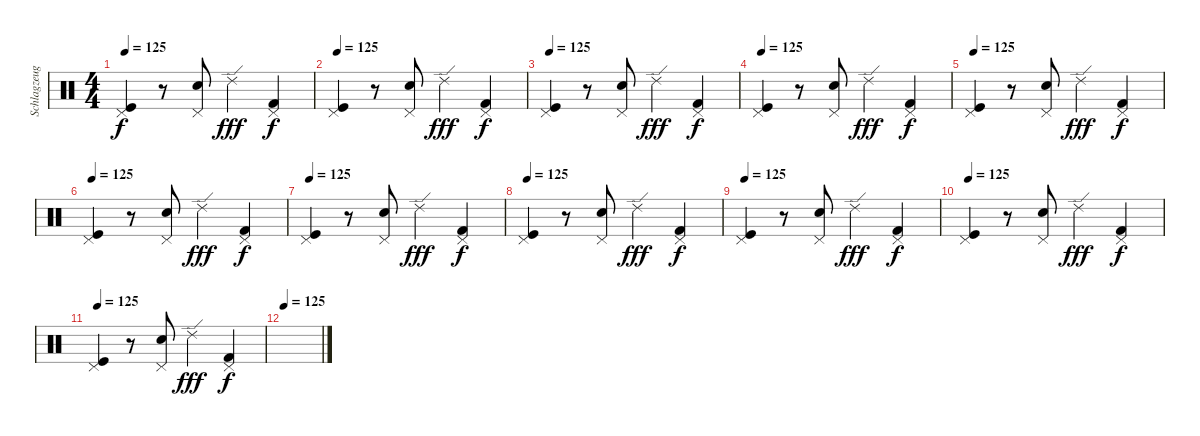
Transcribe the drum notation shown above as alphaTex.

\track ("Schlagzeug" "Schlagzeug") {instrument percussion}
\staff {score}
\articulation defaults
\ts (4 4)
\tempo 125
\clef neutral
\ks c
("Pedal Hi-Hat (hit)" "Kick (hit)").4{dy f} r.8 ("Pedal Hi-Hat (hit)" "Electric Snare (hit)").8 "Ride (edge) 2".4{dy fff} ("Pedal Hi-Hat (hit)" "Kick (hit) 2").4{dy f} |
\tempo 125
("Pedal Hi-Hat (hit)" "Kick (hit)").4 r.8 ("Pedal Hi-Hat (hit)" "Electric Snare (hit)").8 "Ride (edge) 2".4{dy fff} ("Pedal Hi-Hat (hit)" "Kick (hit) 2").4{dy f} |
\tempo 125
("Pedal Hi-Hat (hit)" "Kick (hit)").4 r.8 ("Pedal Hi-Hat (hit)" "Electric Snare (hit)").8 "Ride (edge) 2".4{dy fff} ("Pedal Hi-Hat (hit)" "Kick (hit) 2").4{dy f} |
\tempo 125
("Pedal Hi-Hat (hit)" "Kick (hit)").4 r.8 ("Pedal Hi-Hat (hit)" "Electric Snare (hit)").8 "Ride (edge) 2".4{dy fff} ("Pedal Hi-Hat (hit)" "Kick (hit) 2").4{dy f} |
\tempo 125
("Pedal Hi-Hat (hit)" "Kick (hit)").4 r.8 ("Pedal Hi-Hat (hit)" "Electric Snare (hit)").8 "Ride (edge) 2".4{dy fff} ("Pedal Hi-Hat (hit)" "Kick (hit) 2").4{dy f} |
\tempo 125
("Pedal Hi-Hat (hit)" "Kick (hit)").4 r.8 ("Pedal Hi-Hat (hit)" "Electric Snare (hit)").8 "Ride (edge) 2".4{dy fff} ("Pedal Hi-Hat (hit)" "Kick (hit) 2").4{dy f} |
\tempo 125
("Pedal Hi-Hat (hit)" "Kick (hit)").4 r.8 ("Pedal Hi-Hat (hit)" "Electric Snare (hit)").8 "Ride (edge) 2".4{dy fff} ("Pedal Hi-Hat (hit)" "Kick (hit) 2").4{dy f} |
\tempo 125
("Pedal Hi-Hat (hit)" "Kick (hit)").4 r.8 ("Pedal Hi-Hat (hit)" "Electric Snare (hit)").8 "Ride (edge) 2".4{dy fff} ("Pedal Hi-Hat (hit)" "Kick (hit) 2").4{dy f} |
\tempo 125
("Pedal Hi-Hat (hit)" "Kick (hit)").4 r.8 ("Pedal Hi-Hat (hit)" "Electric Snare (hit)").8 "Ride (edge) 2".4{dy fff} ("Pedal Hi-Hat (hit)" "Kick (hit) 2").4{dy f} |
\tempo 125
("Pedal Hi-Hat (hit)" "Kick (hit)").4 r.8 ("Pedal Hi-Hat (hit)" "Electric Snare (hit)").8 "Ride (edge) 2".4{dy fff} ("Pedal Hi-Hat (hit)" "Kick (hit) 2").4{dy f} |
\tempo 125
("Pedal Hi-Hat (hit)" "Kick (hit)").4 r.8 ("Pedal Hi-Hat (hit)" "Electric Snare (hit)").8 "Ride (edge) 2".4{dy fff} ("Pedal Hi-Hat (hit)" "Kick (hit) 2").4{dy f} |
\tempo 125
